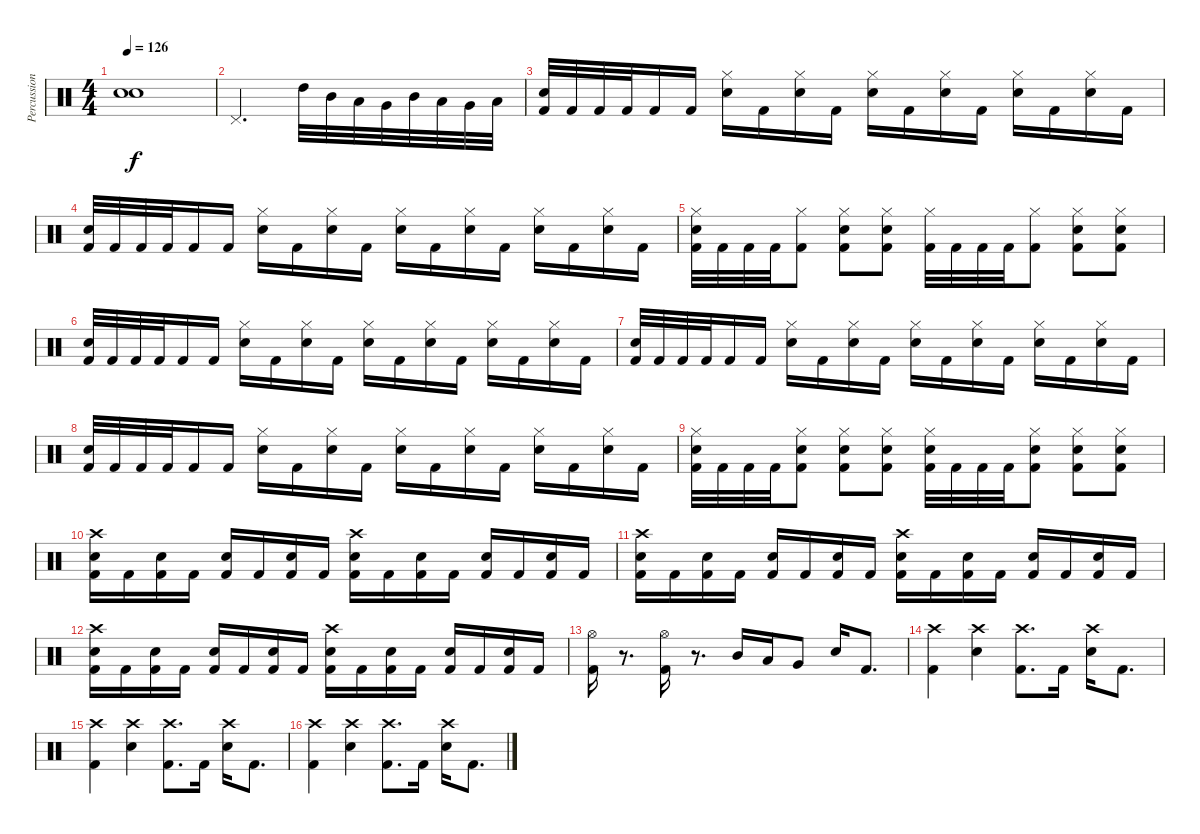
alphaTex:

\track ("Percussion" "Percussion") {instrument percussion}
\staff {score}
\articulation defaults
\ts (4 4)
\tempo 126
\clef neutral
\ks c
("Snare (hit)"{t} "Snare (hit)"{t}).1{dy f} |
"Pedal Hi-Hat (hit)".2{d} "High Tom (hit)".32 "Mid Tom (hit)".32 "Low Tom (hit)".32 "Very Low Tom (hit)".32 "Mid Tom (hit)".32 "Low Tom (hit)".32 "Very Low Tom (hit)".32 "Low Floor Tom (hit)".32 |
("Electric Snare (hit)" "Kick (hit) 2").32 "Kick (hit) 2".32 "Kick (hit) 2".32 "Kick (hit) 2".32 "Kick (hit) 2".16 "Kick (hit) 2".16 ("Hi-Hat (closed)" "Electric Snare (hit)").16 "Kick (hit) 2".16 ("Hi-Hat (closed)" "Electric Snare (hit)").16 "Kick (hit) 2".16 ("Hi-Hat (closed)" "Electric Snare (hit)").16 "Kick (hit) 2".16 ("Hi-Hat (closed)" "Electric Snare (hit)").16 "Kick (hit) 2".16 ("Hi-Hat (closed)" "Electric Snare (hit)").16 "Kick (hit) 2".16 ("Hi-Hat (closed)" "Electric Snare (hit)").16 "Kick (hit) 2".16 |
("Electric Snare (hit)" "Kick (hit) 2").32 "Kick (hit) 2".32 "Kick (hit) 2".32 "Kick (hit) 2".32 "Kick (hit) 2".16 "Kick (hit) 2".16 ("Hi-Hat (closed)" "Electric Snare (hit)").16 "Kick (hit) 2".16 ("Hi-Hat (closed)" "Electric Snare (hit)").16 "Kick (hit) 2".16 ("Hi-Hat (closed)" "Electric Snare (hit)").16 "Kick (hit) 2".16 ("Hi-Hat (closed)" "Electric Snare (hit)").16 "Kick (hit) 2".16 ("Hi-Hat (closed)" "Electric Snare (hit)").16 "Kick (hit) 2".16 ("Hi-Hat (closed)" "Electric Snare (hit)").16 "Kick (hit) 2".16 |
("Hi-Hat (closed)" "Electric Snare (hit)" "Kick (hit) 2").32 "Kick (hit) 2".32 "Kick (hit) 2".32 "Kick (hit) 2".32 ("Hi-Hat (closed)" "Kick (hit) 2").8 ("Hi-Hat (closed)" "Electric Snare (hit)" "Kick (hit) 2").8 ("Hi-Hat (closed)" "Electric Snare (hit)" "Kick (hit) 2").8 ("Hi-Hat (closed)" "Kick (hit) 2").32 "Kick (hit) 2".32 "Kick (hit) 2".32 "Kick (hit) 2".32 ("Hi-Hat (closed)" "Kick (hit) 2").8 ("Hi-Hat (closed)" "Electric Snare (hit)" "Kick (hit) 2").8 ("Hi-Hat (closed)" "Electric Snare (hit)" "Kick (hit) 2").8 |
("Electric Snare (hit)" "Kick (hit) 2").32 "Kick (hit) 2".32 "Kick (hit) 2".32 "Kick (hit) 2".32 "Kick (hit) 2".16 "Kick (hit) 2".16 ("Hi-Hat (closed)" "Electric Snare (hit)").16 "Kick (hit) 2".16 ("Hi-Hat (closed)" "Electric Snare (hit)").16 "Kick (hit) 2".16 ("Hi-Hat (closed)" "Electric Snare (hit)").16 "Kick (hit) 2".16 ("Hi-Hat (closed)" "Electric Snare (hit)").16 "Kick (hit) 2".16 ("Hi-Hat (closed)" "Electric Snare (hit)").16 "Kick (hit) 2".16 ("Hi-Hat (closed)" "Electric Snare (hit)").16 "Kick (hit) 2".16 |
("Electric Snare (hit)" "Kick (hit) 2").32 "Kick (hit) 2".32 "Kick (hit) 2".32 "Kick (hit) 2".32 "Kick (hit) 2".16 "Kick (hit) 2".16 ("Hi-Hat (closed)" "Electric Snare (hit)").16 "Kick (hit) 2".16 ("Hi-Hat (closed)" "Electric Snare (hit)").16 "Kick (hit) 2".16 ("Hi-Hat (closed)" "Electric Snare (hit)").16 "Kick (hit) 2".16 ("Hi-Hat (closed)" "Electric Snare (hit)").16 "Kick (hit) 2".16 ("Hi-Hat (closed)" "Electric Snare (hit)").16 "Kick (hit) 2".16 ("Hi-Hat (closed)" "Electric Snare (hit)").16 "Kick (hit) 2".16 |
("Electric Snare (hit)" "Kick (hit) 2").32 "Kick (hit) 2".32 "Kick (hit) 2".32 "Kick (hit) 2".32 "Kick (hit) 2".16 "Kick (hit) 2".16 ("Hi-Hat (closed)" "Electric Snare (hit)").16 "Kick (hit) 2".16 ("Hi-Hat (closed)" "Electric Snare (hit)").16 "Kick (hit) 2".16 ("Hi-Hat (closed)" "Electric Snare (hit)").16 "Kick (hit) 2".16 ("Hi-Hat (closed)" "Electric Snare (hit)").16 "Kick (hit) 2".16 ("Hi-Hat (closed)" "Electric Snare (hit)").16 "Kick (hit) 2".16 ("Hi-Hat (closed)" "Electric Snare (hit)").16 "Kick (hit) 2".16 |
("Hi-Hat (closed)" "Electric Snare (hit)" "Kick (hit) 2").32 "Kick (hit) 2".32 "Kick (hit) 2".32 "Kick (hit) 2".32 ("Hi-Hat (closed)" "Electric Snare (hit)" "Kick (hit) 2").8 ("Hi-Hat (closed)" "Electric Snare (hit)" "Kick (hit) 2").8 ("Hi-Hat (closed)" "Electric Snare (hit)" "Kick (hit) 2").8 ("Hi-Hat (closed)" "Electric Snare (hit)" "Kick (hit) 2").32 "Kick (hit) 2".32 "Kick (hit) 2".32 "Kick (hit) 2".32 ("Hi-Hat (closed)" "Electric Snare (hit)" "Kick (hit) 2").8 ("Hi-Hat (closed)" "Electric Snare (hit)" "Kick (hit) 2").8 ("Hi-Hat (closed)" "Electric Snare (hit)" "Kick (hit) 2").8 |
("Crash high (hit)" "Electric Snare (hit)" "Kick (hit) 2").16 "Kick (hit) 2".16 ("Electric Snare (hit)" "Kick (hit) 2").16 "Kick (hit) 2".16 ("Electric Snare (hit)" "Kick (hit) 2").16 "Kick (hit) 2".16 ("Electric Snare (hit)" "Kick (hit) 2").16 "Kick (hit) 2".16 ("Crash high (hit)" "Electric Snare (hit)" "Kick (hit) 2").16 "Kick (hit) 2".16 ("Electric Snare (hit)" "Kick (hit) 2").16 "Kick (hit) 2".16 ("Electric Snare (hit)" "Kick (hit) 2").16 "Kick (hit) 2".16 ("Electric Snare (hit)" "Kick (hit) 2").16 "Kick (hit) 2".16 |
("Crash high (hit)" "Electric Snare (hit)" "Kick (hit) 2").16 "Kick (hit) 2".16 ("Electric Snare (hit)" "Kick (hit) 2").16 "Kick (hit) 2".16 ("Electric Snare (hit)" "Kick (hit) 2").16 "Kick (hit) 2".16 ("Electric Snare (hit)" "Kick (hit) 2").16 "Kick (hit) 2".16 ("Crash high (hit)" "Electric Snare (hit)" "Kick (hit) 2").16 "Kick (hit) 2".16 ("Electric Snare (hit)" "Kick (hit) 2").16 "Kick (hit) 2".16 ("Electric Snare (hit)" "Kick (hit) 2").16 "Kick (hit) 2".16 ("Electric Snare (hit)" "Kick (hit) 2").16 "Kick (hit) 2".16 |
("Crash high (hit)" "Electric Snare (hit)" "Kick (hit) 2").16 "Kick (hit) 2".16 ("Electric Snare (hit)" "Kick (hit) 2").16 "Kick (hit) 2".16 ("Electric Snare (hit)" "Kick (hit) 2").16 "Kick (hit) 2".16 ("Electric Snare (hit)" "Kick (hit) 2").16 "Kick (hit) 2".16 ("Crash high (hit)" "Electric Snare (hit)" "Kick (hit) 2").16 "Kick (hit) 2".16 ("Electric Snare (hit)" "Kick (hit) 2").16 "Kick (hit) 2".16 ("Electric Snare (hit)" "Kick (hit) 2").16 "Kick (hit) 2".16 ("Electric Snare (hit)" "Kick (hit) 2").16 "Kick (hit) 2".16 |
("Hi-Hat (open)" "Kick (hit) 2").16 r.8{d} ("Hi-Hat (open)" "Kick (hit) 2").16 r.8{d} "Mid Tom (hit)".16 "Low Tom (hit)".16 "Very Low Tom (hit)".8 "Electric Snare (hit)".16 "Kick (hit) 2".8{d} |
("Crash high (hit)" "Kick (hit) 2").4 ("Crash high (hit)" "Electric Snare (hit)").4 ("Crash high (hit)" "Kick (hit) 2").8{d} "Kick (hit) 2".16 ("Crash high (hit)" "Electric Snare (hit)").16 "Kick (hit) 2".8{d} |
("Crash high (hit)" "Kick (hit) 2").4 ("Crash high (hit)" "Electric Snare (hit)").4 ("Crash high (hit)" "Kick (hit) 2").8{d} "Kick (hit) 2".16 ("Crash high (hit)" "Electric Snare (hit)").16 "Kick (hit) 2".8{d} |
("Crash high (hit)" "Kick (hit) 2").4 ("Crash high (hit)" "Electric Snare (hit)").4 ("Crash high (hit)" "Kick (hit) 2").8{d} "Kick (hit) 2".16 ("Crash high (hit)" "Electric Snare (hit)").16 "Kick (hit) 2".8{d}
